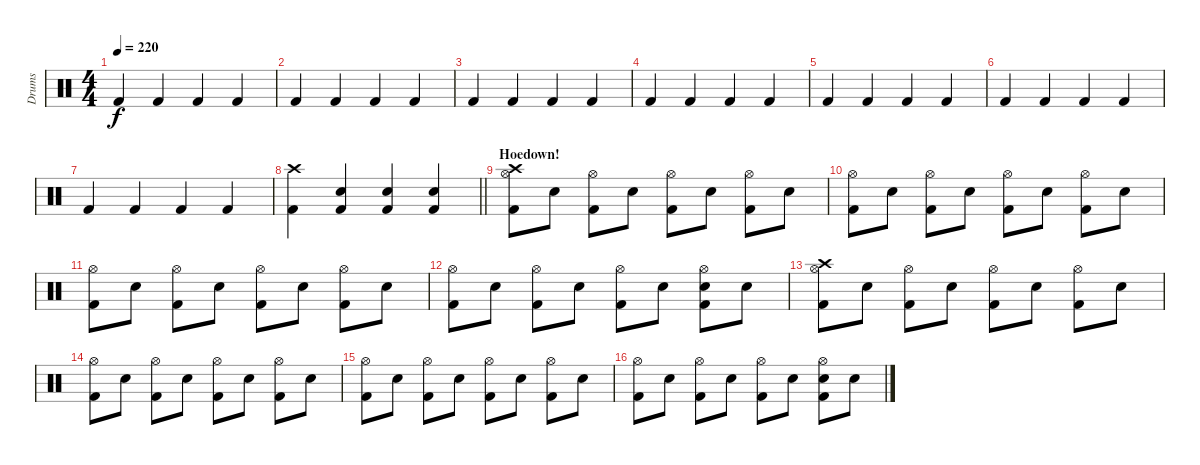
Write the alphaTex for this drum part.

\track ("Drums" "Drums") {instrument percussion}
\staff {score}
\articulation defaults
\ts (4 4)
\tempo 220
\clef neutral
\ks c "Kick (hit) 2".4{dy f} "Kick (hit) 2".4 "Kick (hit) 2".4 "Kick (hit) 2".4
|
"Kick (hit) 2".4 "Kick (hit) 2".4 "Kick (hit) 2".4 "Kick (hit) 2".4 |
"Kick (hit) 2".4 "Kick (hit) 2".4 "Kick (hit) 2".4 "Kick (hit) 2".4 |
"Kick (hit) 2".4 "Kick (hit) 2".4 "Kick (hit) 2".4 "Kick (hit) 2".4 |
"Kick (hit) 2".4 "Kick (hit) 2".4 "Kick (hit) 2".4 "Kick (hit) 2".4 |
"Kick (hit) 2".4 "Kick (hit) 2".4 "Kick (hit) 2".4 "Kick (hit) 2".4 |
"Kick (hit) 2".4 "Kick (hit) 2".4 "Kick (hit) 2".4 "Kick (hit) 2".4 |
\barLineRight lightlight
("Crash high (hit)" "Kick (hit) 2").4 ("Snare (hit) 2" "Kick (hit) 2").4 ("Snare (hit) 2" "Kick (hit) 2").4 ("Snare (hit) 2" "Kick (hit) 2").4 |
\section ("" "Hoedown!")
("Crash high (hit)" "Hi-Hat (open)" "Kick (hit) 2").8 "Snare (hit) 2".8 ("Hi-Hat (open)" "Kick (hit) 2").8 "Snare (hit) 2".8 ("Hi-Hat (open)" "Kick (hit) 2").8 "Snare (hit) 2".8 ("Hi-Hat (open)" "Kick (hit) 2").8 "Snare (hit) 2".8 |
("Hi-Hat (open)" "Kick (hit) 2").8 "Snare (hit) 2".8 ("Hi-Hat (open)" "Kick (hit) 2").8 "Snare (hit) 2".8 ("Hi-Hat (open)" "Kick (hit) 2").8 "Snare (hit) 2".8 ("Hi-Hat (open)" "Kick (hit) 2").8 "Snare (hit) 2".8 |
("Hi-Hat (open)" "Kick (hit) 2").8 "Snare (hit) 2".8 ("Hi-Hat (open)" "Kick (hit) 2").8 "Snare (hit) 2".8 ("Hi-Hat (open)" "Kick (hit) 2").8 "Snare (hit) 2".8 ("Hi-Hat (open)" "Kick (hit) 2").8 "Snare (hit) 2".8 |
("Hi-Hat (open)" "Kick (hit) 2").8 "Snare (hit) 2".8 ("Hi-Hat (open)" "Kick (hit) 2").8 "Snare (hit) 2".8 ("Hi-Hat (open)" "Kick (hit) 2").8 "Snare (hit) 2".8 ("Hi-Hat (open)" "Snare (hit) 2" "Kick (hit) 2").8 "Snare (hit) 2".8 |
("Crash high (hit)" "Hi-Hat (open)" "Kick (hit) 2").8 "Snare (hit) 2".8 ("Hi-Hat (open)" "Kick (hit) 2").8 "Snare (hit) 2".8 ("Hi-Hat (open)" "Kick (hit) 2").8 "Snare (hit) 2".8 ("Hi-Hat (open)" "Kick (hit) 2").8 "Snare (hit) 2".8 |
("Hi-Hat (open)" "Kick (hit) 2").8 "Snare (hit) 2".8 ("Hi-Hat (open)" "Kick (hit) 2").8 "Snare (hit) 2".8 ("Hi-Hat (open)" "Kick (hit) 2").8 "Snare (hit) 2".8 ("Hi-Hat (open)" "Kick (hit) 2").8 "Snare (hit) 2".8 |
("Hi-Hat (open)" "Kick (hit) 2").8 "Snare (hit) 2".8 ("Hi-Hat (open)" "Kick (hit) 2").8 "Snare (hit) 2".8 ("Hi-Hat (open)" "Kick (hit) 2").8 "Snare (hit) 2".8 ("Hi-Hat (open)" "Kick (hit) 2").8 "Snare (hit) 2".8 |
("Hi-Hat (open)" "Kick (hit) 2").8 "Snare (hit) 2".8 ("Hi-Hat (open)" "Kick (hit) 2").8 "Snare (hit) 2".8 ("Hi-Hat (open)" "Kick (hit) 2").8 "Snare (hit) 2".8 ("Hi-Hat (open)" "Snare (hit) 2" "Kick (hit) 2").8 "Snare (hit) 2".8
